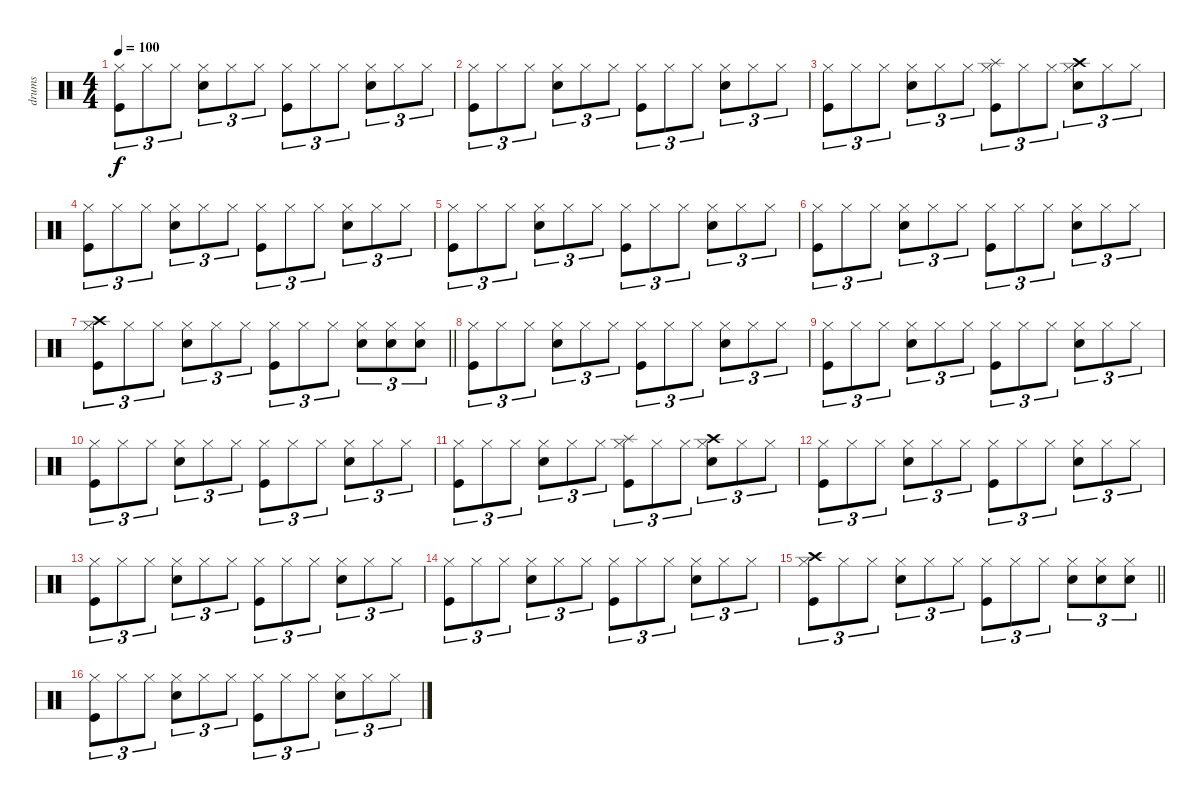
\track ("drums" "drums") {instrument percussion}
\staff {score}
\articulation defaults
\ts (4 4)
\tempo 100
\clef neutral
\ks c
("Hi-Hat (closed)" "Kick (hit)").8{tu (3 2) dy f} "Hi-Hat (closed)".8{tu (3 2)} "Hi-Hat (closed)".8{tu (3 2)} ("Hi-Hat (closed)" "Snare (hit) 2").8{tu (3 2)} "Hi-Hat (closed)".8{tu (3 2)} "Hi-Hat (closed)".8{tu (3 2)} ("Hi-Hat (closed)" "Kick (hit)").8{tu (3 2)} "Hi-Hat (closed)".8{tu (3 2)} "Hi-Hat (closed)".8{tu (3 2)} ("Hi-Hat (closed)" "Snare (hit) 2").8{tu (3 2)} "Hi-Hat (closed)".8{tu (3 2)} "Hi-Hat (closed)".8{tu (3 2)} |
("Hi-Hat (closed)" "Kick (hit)").8{tu (3 2)} "Hi-Hat (closed)".8{tu (3 2)} "Hi-Hat (closed)".8{tu (3 2)} ("Hi-Hat (closed)" "Snare (hit) 2").8{tu (3 2)} "Hi-Hat (closed)".8{tu (3 2)} "Hi-Hat (closed)".8{tu (3 2)} ("Hi-Hat (closed)" "Kick (hit)").8{tu (3 2)} "Hi-Hat (closed)".8{tu (3 2)} "Hi-Hat (closed)".8{tu (3 2)} ("Hi-Hat (closed)" "Snare (hit) 2").8{tu (3 2)} "Hi-Hat (closed)".8{tu (3 2)} "Hi-Hat (closed)".8{tu (3 2)} |
("Hi-Hat (closed)" "Kick (hit)").8{tu (3 2)} "Hi-Hat (closed)".8{tu (3 2)} "Hi-Hat (closed)".8{tu (3 2)} ("Hi-Hat (closed)" "Snare (hit) 2").8{tu (3 2)} "Hi-Hat (closed)".8{tu (3 2)} "Hi-Hat (closed)".8{tu (3 2)} ("Hi-Hat (closed)" "Splash (hit)" "Kick (hit)").8{tu (3 2)} "Hi-Hat (closed)".8{tu (3 2)} "Hi-Hat (closed)".8{tu (3 2)} ("Hi-Hat (closed)" "Crash high (hit)" "Snare (hit) 2").8{tu (3 2)} "Hi-Hat (closed)".8{tu (3 2)} "Hi-Hat (closed)".8{tu (3 2)} |
("Hi-Hat (closed)" "Kick (hit)").8{tu (3 2)} "Hi-Hat (closed)".8{tu (3 2)} "Hi-Hat (closed)".8{tu (3 2)} ("Hi-Hat (closed)" "Snare (hit) 2").8{tu (3 2)} "Hi-Hat (closed)".8{tu (3 2)} "Hi-Hat (closed)".8{tu (3 2)} ("Hi-Hat (closed)" "Kick (hit)").8{tu (3 2)} "Hi-Hat (closed)".8{tu (3 2)} "Hi-Hat (closed)".8{tu (3 2)} ("Hi-Hat (closed)" "Snare (hit) 2").8{tu (3 2)} "Hi-Hat (closed)".8{tu (3 2)} "Hi-Hat (closed)".8{tu (3 2)} |
("Hi-Hat (closed)" "Kick (hit)").8{tu (3 2)} "Hi-Hat (closed)".8{tu (3 2)} "Hi-Hat (closed)".8{tu (3 2)} ("Hi-Hat (closed)" "Snare (hit) 2").8{tu (3 2)} "Hi-Hat (closed)".8{tu (3 2)} "Hi-Hat (closed)".8{tu (3 2)} ("Hi-Hat (closed)" "Kick (hit)").8{tu (3 2)} "Hi-Hat (closed)".8{tu (3 2)} "Hi-Hat (closed)".8{tu (3 2)} ("Hi-Hat (closed)" "Snare (hit) 2").8{tu (3 2)} "Hi-Hat (closed)".8{tu (3 2)} "Hi-Hat (closed)".8{tu (3 2)} |
("Hi-Hat (closed)" "Kick (hit)").8{tu (3 2)} "Hi-Hat (closed)".8{tu (3 2)} "Hi-Hat (closed)".8{tu (3 2)} ("Hi-Hat (closed)" "Snare (hit) 2").8{tu (3 2)} "Hi-Hat (closed)".8{tu (3 2)} "Hi-Hat (closed)".8{tu (3 2)} ("Hi-Hat (closed)" "Kick (hit)").8{tu (3 2)} "Hi-Hat (closed)".8{tu (3 2)} "Hi-Hat (closed)".8{tu (3 2)} ("Hi-Hat (closed)" "Snare (hit) 2").8{tu (3 2)} "Hi-Hat (closed)".8{tu (3 2)} "Hi-Hat (closed)".8{tu (3 2)} |
\barLineRight lightlight
("Hi-Hat (closed)" "Crash high (hit)" "Kick (hit)").8{tu (3 2)} "Hi-Hat (closed)".8{tu (3 2)} "Hi-Hat (closed)".8{tu (3 2)} ("Hi-Hat (closed)" "Snare (hit) 2").8{tu (3 2)} "Hi-Hat (closed)".8{tu (3 2)} "Hi-Hat (closed)".8{tu (3 2)} ("Hi-Hat (closed)" "Kick (hit)").8{tu (3 2)} "Hi-Hat (closed)".8{tu (3 2)} "Hi-Hat (closed)".8{tu (3 2)} ("Hi-Hat (closed)" "Snare (hit) 2").8{tu (3 2)} ("Hi-Hat (closed)" "Snare (hit) 2").8{tu (3 2)} ("Hi-Hat (closed)" "Snare (hit) 2").8{tu (3 2)} |
("Hi-Hat (closed)" "Kick (hit)").8{tu (3 2)} "Hi-Hat (closed)".8{tu (3 2)} "Hi-Hat (closed)".8{tu (3 2)} ("Hi-Hat (closed)" "Snare (hit) 2").8{tu (3 2)} "Hi-Hat (closed)".8{tu (3 2)} "Hi-Hat (closed)".8{tu (3 2)} ("Hi-Hat (closed)" "Kick (hit)").8{tu (3 2)} "Hi-Hat (closed)".8{tu (3 2)} "Hi-Hat (closed)".8{tu (3 2)} ("Hi-Hat (closed)" "Snare (hit) 2").8{tu (3 2)} "Hi-Hat (closed)".8{tu (3 2)} "Hi-Hat (closed)".8{tu (3 2)} |
("Hi-Hat (closed)" "Kick (hit)").8{tu (3 2)} "Hi-Hat (closed)".8{tu (3 2)} "Hi-Hat (closed)".8{tu (3 2)} ("Hi-Hat (closed)" "Snare (hit) 2").8{tu (3 2)} "Hi-Hat (closed)".8{tu (3 2)} "Hi-Hat (closed)".8{tu (3 2)} ("Hi-Hat (closed)" "Kick (hit)").8{tu (3 2)} "Hi-Hat (closed)".8{tu (3 2)} "Hi-Hat (closed)".8{tu (3 2)} ("Hi-Hat (closed)" "Snare (hit) 2").8{tu (3 2)} "Hi-Hat (closed)".8{tu (3 2)} "Hi-Hat (closed)".8{tu (3 2)} |
("Hi-Hat (closed)" "Kick (hit)").8{tu (3 2)} "Hi-Hat (closed)".8{tu (3 2)} "Hi-Hat (closed)".8{tu (3 2)} ("Hi-Hat (closed)" "Snare (hit) 2").8{tu (3 2)} "Hi-Hat (closed)".8{tu (3 2)} "Hi-Hat (closed)".8{tu (3 2)} ("Hi-Hat (closed)" "Kick (hit)").8{tu (3 2)} "Hi-Hat (closed)".8{tu (3 2)} "Hi-Hat (closed)".8{tu (3 2)} ("Hi-Hat (closed)" "Snare (hit) 2").8{tu (3 2)} "Hi-Hat (closed)".8{tu (3 2)} "Hi-Hat (closed)".8{tu (3 2)} |
("Hi-Hat (closed)" "Kick (hit)").8{tu (3 2)} "Hi-Hat (closed)".8{tu (3 2)} "Hi-Hat (closed)".8{tu (3 2)} ("Hi-Hat (closed)" "Snare (hit) 2").8{tu (3 2)} "Hi-Hat (closed)".8{tu (3 2)} "Hi-Hat (closed)".8{tu (3 2)} ("Hi-Hat (closed)" "Splash (hit)" "Kick (hit)").8{tu (3 2)} "Hi-Hat (closed)".8{tu (3 2)} "Hi-Hat (closed)".8{tu (3 2)} ("Hi-Hat (closed)" "Crash high (hit)" "Snare (hit) 2").8{tu (3 2)} "Hi-Hat (closed)".8{tu (3 2)} "Hi-Hat (closed)".8{tu (3 2)} |
("Hi-Hat (closed)" "Kick (hit)").8{tu (3 2)} "Hi-Hat (closed)".8{tu (3 2)} "Hi-Hat (closed)".8{tu (3 2)} ("Hi-Hat (closed)" "Snare (hit) 2").8{tu (3 2)} "Hi-Hat (closed)".8{tu (3 2)} "Hi-Hat (closed)".8{tu (3 2)} ("Hi-Hat (closed)" "Kick (hit)").8{tu (3 2)} "Hi-Hat (closed)".8{tu (3 2)} "Hi-Hat (closed)".8{tu (3 2)} ("Hi-Hat (closed)" "Snare (hit) 2").8{tu (3 2)} "Hi-Hat (closed)".8{tu (3 2)} "Hi-Hat (closed)".8{tu (3 2)} |
("Hi-Hat (closed)" "Kick (hit)").8{tu (3 2)} "Hi-Hat (closed)".8{tu (3 2)} "Hi-Hat (closed)".8{tu (3 2)} ("Hi-Hat (closed)" "Snare (hit) 2").8{tu (3 2)} "Hi-Hat (closed)".8{tu (3 2)} "Hi-Hat (closed)".8{tu (3 2)} ("Hi-Hat (closed)" "Kick (hit)").8{tu (3 2)} "Hi-Hat (closed)".8{tu (3 2)} "Hi-Hat (closed)".8{tu (3 2)} ("Hi-Hat (closed)" "Snare (hit) 2").8{tu (3 2)} "Hi-Hat (closed)".8{tu (3 2)} "Hi-Hat (closed)".8{tu (3 2)} |
("Hi-Hat (closed)" "Kick (hit)").8{tu (3 2)} "Hi-Hat (closed)".8{tu (3 2)} "Hi-Hat (closed)".8{tu (3 2)} ("Hi-Hat (closed)" "Snare (hit) 2").8{tu (3 2)} "Hi-Hat (closed)".8{tu (3 2)} "Hi-Hat (closed)".8{tu (3 2)} ("Hi-Hat (closed)" "Kick (hit)").8{tu (3 2)} "Hi-Hat (closed)".8{tu (3 2)} "Hi-Hat (closed)".8{tu (3 2)} ("Hi-Hat (closed)" "Snare (hit) 2").8{tu (3 2)} "Hi-Hat (closed)".8{tu (3 2)} "Hi-Hat (closed)".8{tu (3 2)} |
\barLineRight lightlight
("Hi-Hat (closed)" "Crash high (hit)" "Kick (hit)").8{tu (3 2)} "Hi-Hat (closed)".8{tu (3 2)} "Hi-Hat (closed)".8{tu (3 2)} ("Hi-Hat (closed)" "Snare (hit) 2").8{tu (3 2)} "Hi-Hat (closed)".8{tu (3 2)} "Hi-Hat (closed)".8{tu (3 2)} ("Hi-Hat (closed)" "Kick (hit)").8{tu (3 2)} "Hi-Hat (closed)".8{tu (3 2)} "Hi-Hat (closed)".8{tu (3 2)} ("Hi-Hat (closed)" "Snare (hit) 2").8{tu (3 2)} ("Hi-Hat (closed)" "Snare (hit) 2").8{tu (3 2)} ("Hi-Hat (closed)" "Snare (hit) 2").8{tu (3 2)} |
("Hi-Hat (closed)" "Kick (hit)").8{tu (3 2)} "Hi-Hat (closed)".8{tu (3 2)} "Hi-Hat (closed)".8{tu (3 2)} ("Hi-Hat (closed)" "Snare (hit) 2").8{tu (3 2)} "Hi-Hat (closed)".8{tu (3 2)} "Hi-Hat (closed)".8{tu (3 2)} ("Hi-Hat (closed)" "Kick (hit)").8{tu (3 2)} "Hi-Hat (closed)".8{tu (3 2)} "Hi-Hat (closed)".8{tu (3 2)} ("Hi-Hat (closed)" "Snare (hit) 2").8{tu (3 2)} "Hi-Hat (closed)".8{tu (3 2)} "Hi-Hat (closed)".8{tu (3 2)}
